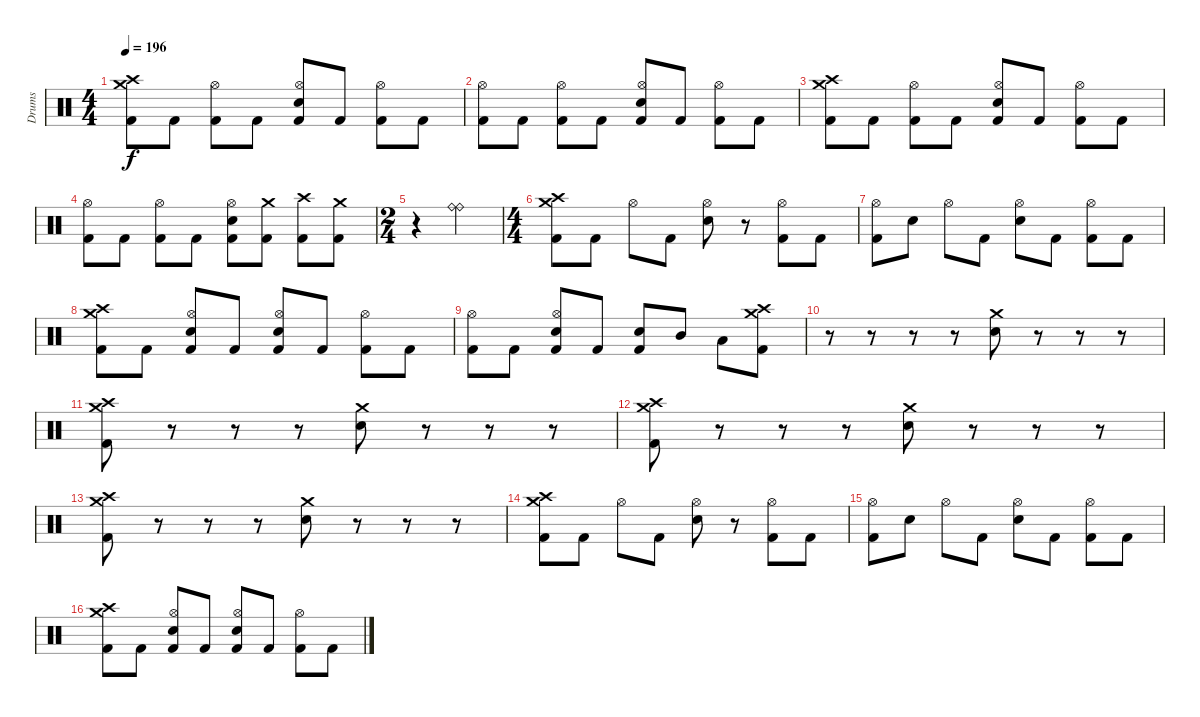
\track ("Drums" "Drums") {instrument percussion}
\staff {score}
\articulation defaults
\ts (4 4)
\tempo 196
\clef neutral
\ks c
("Crash high (hit)" "Crash medium (hit)" "Kick (hit) 2").8{dy f} "Kick (hit) 2".8 ("Hi-Hat (open)" "Kick (hit) 2").8 "Kick (hit) 2".8 ("Hi-Hat (open)" "Snare (hit) 2" "Kick (hit) 2").8 "Kick (hit) 2".8 ("Hi-Hat (open)" "Kick (hit) 2").8 "Kick (hit) 2".8 |
("Hi-Hat (open)" "Kick (hit) 2").8 "Kick (hit) 2".8 ("Hi-Hat (open)" "Kick (hit) 2").8 "Kick (hit) 2".8 ("Hi-Hat (open)" "Snare (hit) 2" "Kick (hit) 2").8 "Kick (hit) 2".8 ("Hi-Hat (open)" "Kick (hit) 2").8 "Kick (hit) 2".8 |
("Crash high (hit)" "Crash medium (hit)" "Kick (hit) 2").8 "Kick (hit) 2".8 ("Hi-Hat (open)" "Kick (hit) 2").8 "Kick (hit) 2".8 ("Hi-Hat (open)" "Snare (hit) 2" "Kick (hit) 2").8 "Kick (hit) 2".8 ("Hi-Hat (open)" "Kick (hit) 2").8 "Kick (hit) 2".8 |
("Hi-Hat (open)" "Kick (hit) 2").8 "Kick (hit) 2".8 ("Hi-Hat (open)" "Kick (hit) 2").8 "Kick (hit) 2".8 ("Hi-Hat (open)" "Snare (hit) 2" "Kick (hit) 2").8 ("Crash medium (hit)" "Kick (hit) 2").8 ("Crash high (hit)" "Kick (hit) 2").8 ("Crash medium (hit)" "Kick (hit) 2").8 |
\ts (2 4)
r.4 ("Ride (bell)" "Ride (bell)").4 |
\ts (4 4)
("Crash high (hit)" "Crash medium (hit)" "Kick (hit) 2").8 "Kick (hit) 2".8 "Hi-Hat (open)".8 "Kick (hit) 2".8 ("Hi-Hat (open)" "Snare (hit) 2").8 r.8 ("Hi-Hat (open)" "Kick (hit) 2").8 "Kick (hit) 2".8 |
("Hi-Hat (open)" "Kick (hit) 2").8 "Snare (hit) 2".8 "Hi-Hat (open)".8 "Kick (hit) 2".8 ("Hi-Hat (open)" "Snare (hit) 2").8 "Kick (hit) 2".8 ("Hi-Hat (open)" "Kick (hit) 2").8 "Kick (hit) 2".8 |
("Crash high (hit)" "Crash medium (hit)" "Kick (hit) 2").8 "Kick (hit) 2".8 ("Hi-Hat (open)" "Snare (hit) 2" "Kick (hit) 2").8 "Kick (hit) 2".8 ("Hi-Hat (open)" "Snare (hit) 2" "Kick (hit) 2").8 "Kick (hit) 2".8 ("Hi-Hat (open)" "Kick (hit) 2").8 "Kick (hit) 2".8 |
("Hi-Hat (open)" "Kick (hit) 2").8 "Kick (hit) 2".8 ("Hi-Hat (open)" "Snare (hit) 2" "Kick (hit) 2").8 "Kick (hit) 2".8 ("Snare (hit) 2" "Kick (hit) 2").8 "Mid Tom (hit)".8 "Low Tom (hit)".8 ("Crash high (hit)" "Crash medium (hit)" "Kick (hit) 2").8 |
r.8 r.8 r.8 r.8 ("Crash medium (hit)" "Snare (hit) 2").8 r.8 r.8 r.8 |
("Crash high (hit)" "Crash medium (hit)" "Kick (hit) 2").8 r.8 r.8 r.8 ("Crash medium (hit)" "Snare (hit) 2").8 r.8 r.8 r.8 |
("Crash high (hit)" "Crash medium (hit)" "Kick (hit) 2").8 r.8 r.8 r.8 ("Crash medium (hit)" "Snare (hit) 2").8 r.8 r.8 r.8 |
("Crash high (hit)" "Crash medium (hit)" "Kick (hit) 2").8 r.8 r.8 r.8 ("Crash medium (hit)" "Snare (hit) 2").8 r.8 r.8 r.8 |
("Crash high (hit)" "Crash medium (hit)" "Kick (hit) 2").8 "Kick (hit) 2".8 "Hi-Hat (open)".8 "Kick (hit) 2".8 ("Hi-Hat (open)" "Snare (hit) 2").8 r.8 ("Hi-Hat (open)" "Kick (hit) 2").8 "Kick (hit) 2".8 |
("Hi-Hat (open)" "Kick (hit) 2").8 "Snare (hit) 2".8 "Hi-Hat (open)".8 "Kick (hit) 2".8 ("Hi-Hat (open)" "Snare (hit) 2").8 "Kick (hit) 2".8 ("Hi-Hat (open)" "Kick (hit) 2").8 "Kick (hit) 2".8 |
("Crash high (hit)" "Crash medium (hit)" "Kick (hit) 2").8 "Kick (hit) 2".8 ("Hi-Hat (open)" "Snare (hit) 2" "Kick (hit) 2").8 "Kick (hit) 2".8 ("Hi-Hat (open)" "Snare (hit) 2" "Kick (hit) 2").8 "Kick (hit) 2".8 ("Hi-Hat (open)" "Kick (hit) 2").8 "Kick (hit) 2".8
